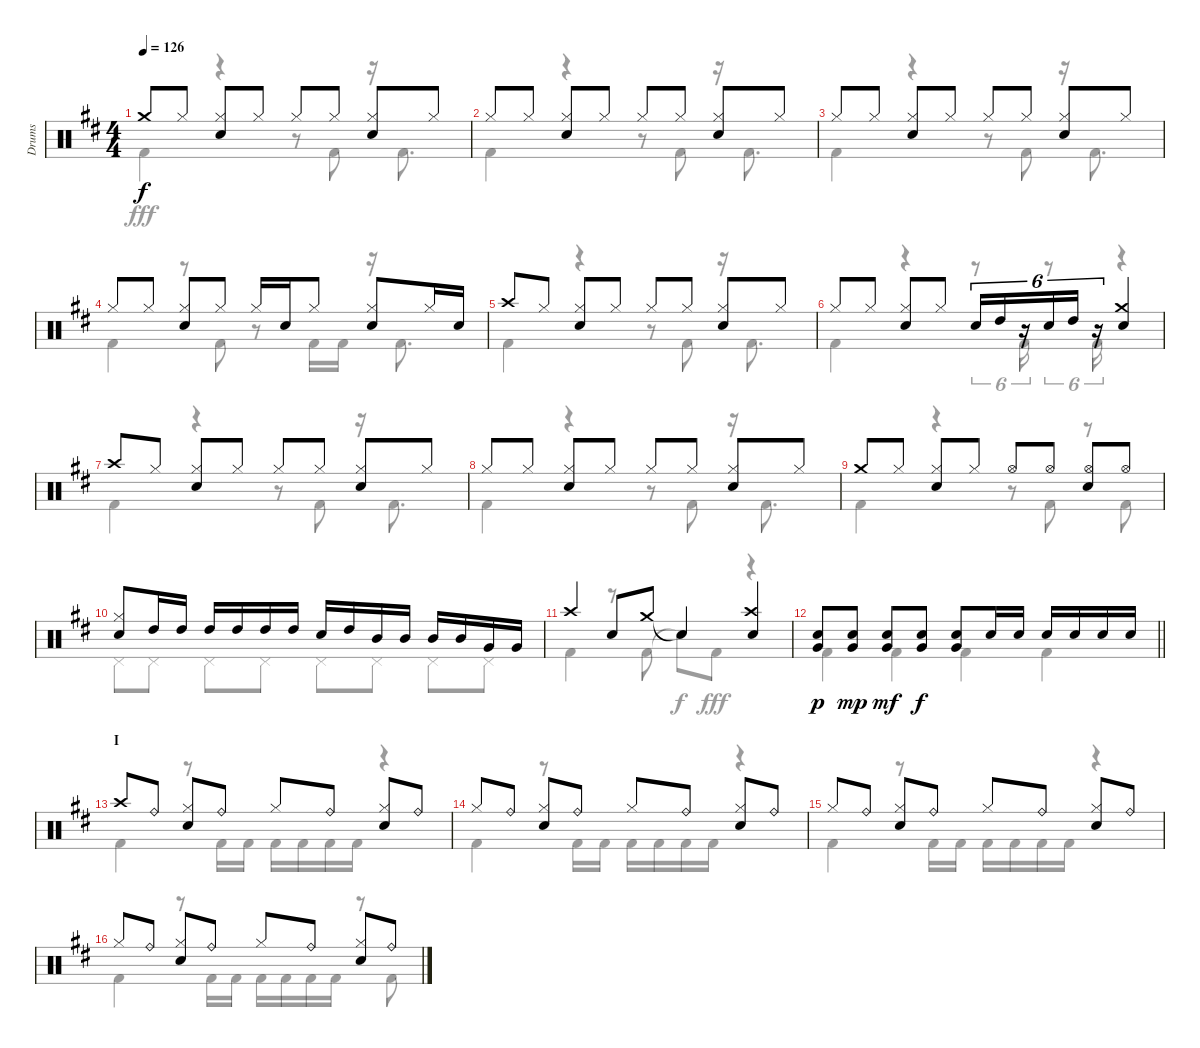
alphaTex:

\track ("Drums" "Drums") {instrument percussion}
\staff {score}
\articulation defaults
\voice
\ts (4 4)
\tempo 126
\clef neutral
\ks d "Crash medium (hit)".8{dy f} "Hi-Hat (closed)".8
("Hi-Hat (closed)" "Snare (hit) 2").8 "Hi-Hat (closed)".8 "Hi-Hat (closed)".8 "Hi-Hat (closed)".8 ("Hi-Hat (closed)" "Snare (hit) 2").8 "Hi-Hat (closed)".8 |
"Hi-Hat (closed)".8 "Hi-Hat (closed)".8 ("Hi-Hat (closed)" "Snare (hit) 2").8 "Hi-Hat (closed)".8 "Hi-Hat (closed)".8 "Hi-Hat (closed)".8 ("Hi-Hat (closed)" "Snare (hit) 2").8 "Hi-Hat (closed)".8 |
"Hi-Hat (closed)".8 "Hi-Hat (closed)".8 ("Hi-Hat (closed)" "Snare (hit) 2").8 "Hi-Hat (closed)".8 "Hi-Hat (closed)".8 "Hi-Hat (closed)".8 ("Hi-Hat (closed)" "Snare (hit) 2").8 "Hi-Hat (closed)".8 |
"Hi-Hat (closed)".8 "Hi-Hat (closed)".8 ("Hi-Hat (closed)" "Snare (hit) 2").8 "Hi-Hat (closed)".8 "Hi-Hat (closed)".16 "Snare (hit) 2".16 "Hi-Hat (closed)".8 ("Hi-Hat (closed)" "Snare (hit) 2").8 "Hi-Hat (closed)".16 "Snare (hit) 2".16 |
"Crash high (hit)".8 "Hi-Hat (closed)".8 ("Hi-Hat (closed)" "Snare (hit) 2").8 "Hi-Hat (closed)".8 "Hi-Hat (closed)".8 "Hi-Hat (closed)".8 ("Hi-Hat (closed)" "Snare (hit) 2").8 "Hi-Hat (closed)".8 |
"Hi-Hat (closed)".8 "Hi-Hat (closed)".8 ("Hi-Hat (closed)" "Snare (hit) 2").8 "Hi-Hat (closed)".8 "Snare (hit) 2".16{tu (6 4)} "High Tom (hit)".16{tu (6 4)} r.16{tu (6 4)} "Snare (hit) 2".16{tu (6 4)} "High Tom (hit)".16{tu (6 4)} r.16{tu (6 4)} ("Crash medium (hit)" "Snare (hit) 2").4 |
"Crash high (hit)".8 "Hi-Hat (closed)".8 ("Hi-Hat (closed)" "Snare (hit) 2").8 "Hi-Hat (closed)".8 "Hi-Hat (closed)".8 "Hi-Hat (closed)".8 ("Hi-Hat (closed)" "Snare (hit) 2").8 "Hi-Hat (closed)".8 |
"Hi-Hat (closed)".8 "Hi-Hat (closed)".8 ("Hi-Hat (closed)" "Snare (hit) 2").8 "Hi-Hat (closed)".8 "Hi-Hat (closed)".8 "Hi-Hat (closed)".8 ("Hi-Hat (closed)" "Snare (hit) 2").8 "Hi-Hat (closed)".8 |
"Crash medium (hit)".8 "Hi-Hat (closed)".8 ("Hi-Hat (closed)" "Snare (hit) 2").8 "Hi-Hat (closed)".8 "Hi-Hat (open)".8 "Hi-Hat (open)".8 ("Hi-Hat (open)" "Snare (hit) 2").8 "Hi-Hat (open)".8 |
("Hi-Hat (closed)" "Snare (hit) 2").8 "High Tom (hit)".16 "High Tom (hit)".16 "High Tom (hit)".16 "High Tom (hit)".16 "High Tom (hit)".16 "High Tom (hit)".16 "Snare (hit) 2".16 "High Tom (hit)".16 "Mid Tom (hit)".16 "Mid Tom (hit)".16 "Mid Tom (hit)".16 "Mid Tom (hit)".16 "Very Low Tom (hit)".16 "Very Low Tom (hit)".16 |
"Crash high (hit)".4 "Snare (hit) 2".8 "Crash medium (hit)".8 "Snare (hit)"{t}.4 ("Crash high (hit)" "Snare (hit) 2").4 |
\barLineRight lightlight
("Snare (hit) 2" "Very Low Tom (hit)").8{dy p} ("Snare (hit) 2" "Very Low Tom (hit)").8{dy mp} ("Snare (hit) 2" "Very Low Tom (hit)").8{dy mf} ("Snare (hit) 2" "Very Low Tom (hit)").8{dy f} ("Snare (hit) 2" "Very Low Tom (hit)").8 "Snare (hit) 2".16 "Snare (hit) 2".16 "Snare (hit) 2".16 "Snare (hit) 2".16 "Snare (hit) 2".16 "Snare (hit) 2".16 |
\section ("" "I")
"Crash high (hit)".8 "Ride (bell)".8 ("Hi-Hat (closed)" "Snare (hit) 2").8 "Ride (bell)".8 "Hi-Hat (closed)".8 "Ride (bell)".8 ("Hi-Hat (closed)" "Snare (hit) 2").8 "Ride (bell)".8 |
"Hi-Hat (closed)".8 "Ride (bell)".8 ("Hi-Hat (closed)" "Snare (hit) 2").8 "Ride (bell)".8 "Hi-Hat (closed)".8 "Ride (bell)".8 ("Hi-Hat (closed)" "Snare (hit) 2").8 "Ride (bell)".8 |
"Hi-Hat (closed)".8 "Ride (bell)".8 ("Hi-Hat (closed)" "Snare (hit) 2").8 "Ride (bell)".8 "Hi-Hat (closed)".8 "Ride (bell)".8 ("Hi-Hat (closed)" "Snare (hit) 2").8 "Ride (bell)".8 |
"Hi-Hat (closed)".8 "Ride (bell)".8 ("Hi-Hat (closed)" "Snare (hit) 2").8 "Ride (bell)".8 "Hi-Hat (closed)".8 "Ride (bell)".8 ("Hi-Hat (closed)" "Snare (hit) 2").8 "Ride (bell)".8
\voice
\clef neutral
\ottava regular
\simile none
\ks d "Kick (hit) 2".4{dy fff}
r.4 r.8 "Kick (hit) 2".8 r.16 "Kick (hit) 2".8{d} |
"Kick (hit) 2".4 r.4 r.8 "Kick (hit) 2".8 r.16 "Kick (hit) 2".8{d} |
"Kick (hit) 2".4 r.4 r.8 "Kick (hit) 2".8 r.16 "Kick (hit) 2".8{d} |
"Kick (hit) 2".4 r.8 "Kick (hit) 2".8 r.8 "Kick (hit) 2".16 "Kick (hit) 2".16 r.16 "Kick (hit) 2".8{d} |
"Kick (hit) 2".4 r.4 r.8 "Kick (hit) 2".8 r.16 "Kick (hit) 2".8{d} |
"Kick (hit) 2".4 r.4 r.8{tu (6 4)} "Kick (hit) 2".16{tu (6 4)} r.8{tu (6 4)} "Kick (hit) 2".16{tu (6 4)} r.4 |
"Kick (hit) 2".4 r.4 r.8 "Kick (hit) 2".8 r.16 "Kick (hit) 2".8{d} |
"Kick (hit) 2".4 r.4 r.8 "Kick (hit) 2".8 r.16 "Kick (hit) 2".8{d} |
"Kick (hit) 2".4 r.4 r.8 "Kick (hit) 2".8 r.8 "Kick (hit) 2".8 |
"Pedal Hi-Hat (hit)".8 "Pedal Hi-Hat (hit)".8 "Pedal Hi-Hat (hit)".8 "Pedal Hi-Hat (hit)".8 "Pedal Hi-Hat (hit)".8 "Pedal Hi-Hat (hit)".8 "Pedal Hi-Hat (hit)".8 "Pedal Hi-Hat (hit)".8 |
"Kick (hit) 2".4 r.8 "Kick (hit) 2".8 "Snare (hit)"{t}.8{dy f} "Kick (hit) 2".8{dy fff} r.4 |
\barLineRight lightlight "Kick (hit) 2".4 "Kick (hit) 2".4 "Kick (hit) 2".4 "Kick (hit) 2".4
|
"Kick (hit) 2".4 r.8 "Kick (hit) 2".16 "Kick (hit) 2".16 "Kick (hit) 2".16 "Kick (hit) 2".16 "Kick (hit) 2".16 "Kick (hit) 2".16 r.4 |
"Kick (hit) 2".4 r.8 "Kick (hit) 2".16 "Kick (hit) 2".16 "Kick (hit) 2".16 "Kick (hit) 2".16 "Kick (hit) 2".16 "Kick (hit) 2".16 r.4 |
"Kick (hit) 2".4 r.8 "Kick (hit) 2".16 "Kick (hit) 2".16 "Kick (hit) 2".16 "Kick (hit) 2".16 "Kick (hit) 2".16 "Kick (hit) 2".16 r.4 |
"Kick (hit) 2".4 r.8 "Kick (hit) 2".16 "Kick (hit) 2".16 "Kick (hit) 2".16 "Kick (hit) 2".16 "Kick (hit) 2".16 "Kick (hit) 2".16 r.8 "Kick (hit) 2".8
